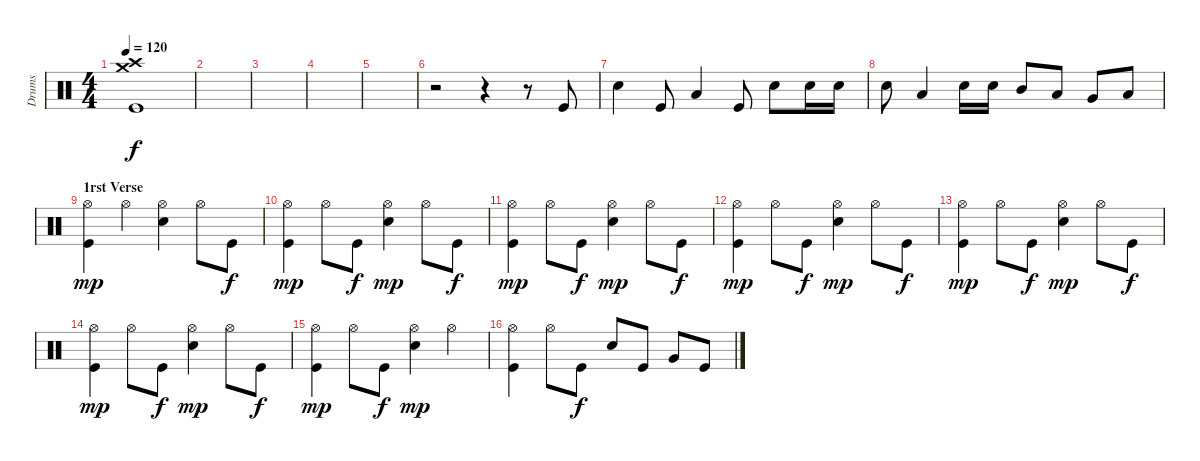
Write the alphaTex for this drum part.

\track ("Drums" "Drums") {instrument percussion}
\staff {score}
\articulation defaults
\ts (4 4)
\tempo 120
\clef neutral
\ks c
("Crash high (hit)" "Crash medium (hit)" "Kick (hit)").1{dy f} |
|
|
|
|
r.2 r.4 r.8 "Kick (hit)".8 |
"Electric Snare (hit)".4 "Kick (hit)".8 "Low Tom (hit)".4 "Kick (hit)".8 "Electric Snare (hit)".8 "Electric Snare (hit)".16 "Electric Snare (hit)".16 |
"Electric Snare (hit)".8 "Low Tom (hit)".4 "Electric Snare (hit)".16 "Electric Snare (hit)".16 "Mid Tom (hit)".8 "Low Tom (hit)".8 "Very Low Tom (hit)".8 "Low Floor Tom (hit)".8 |
\section ("" "1rst Verse")
("Hi-Hat (open)" "Kick (hit)").4{dy mp} "Hi-Hat (open)".4 ("Hi-Hat (open)" "Electric Snare (hit)").4 "Hi-Hat (open)".8 "Kick (hit)".8{dy f} |
("Hi-Hat (open)" "Kick (hit)").4{dy mp} "Hi-Hat (open)".8 "Kick (hit)".8{dy f} ("Hi-Hat (open)" "Electric Snare (hit)").4{dy mp} "Hi-Hat (open)".8 "Kick (hit)".8{dy f} |
("Hi-Hat (open)" "Kick (hit)").4{dy mp} "Hi-Hat (open)".8 "Kick (hit)".8{dy f} ("Hi-Hat (open)" "Electric Snare (hit)").4{dy mp} "Hi-Hat (open)".8 "Kick (hit)".8{dy f} |
("Hi-Hat (open)" "Kick (hit)").4{dy mp} "Hi-Hat (open)".8 "Kick (hit)".8{dy f} ("Hi-Hat (open)" "Electric Snare (hit)").4{dy mp} "Hi-Hat (open)".8 "Kick (hit)".8{dy f} |
("Hi-Hat (open)" "Kick (hit)").4{dy mp} "Hi-Hat (open)".8 "Kick (hit)".8{dy f} ("Hi-Hat (open)" "Electric Snare (hit)").4{dy mp} "Hi-Hat (open)".8 "Kick (hit)".8{dy f} |
("Hi-Hat (open)" "Kick (hit)").4{dy mp} "Hi-Hat (open)".8 "Kick (hit)".8{dy f} ("Hi-Hat (open)" "Electric Snare (hit)").4{dy mp} "Hi-Hat (open)".8 "Kick (hit)".8{dy f} |
("Hi-Hat (open)" "Kick (hit)").4{dy mp} "Hi-Hat (open)".8 "Kick (hit)".8{dy f} ("Hi-Hat (open)" "Electric Snare (hit)").4{dy mp} "Hi-Hat (open)".4 |
("Hi-Hat (open)" "Kick (hit)").4 "Hi-Hat (open)".8 "Kick (hit)".8{dy f} "Electric Snare (hit)".8 "Kick (hit)".8 "Very Low Tom (hit)".8 "Kick (hit)".8
